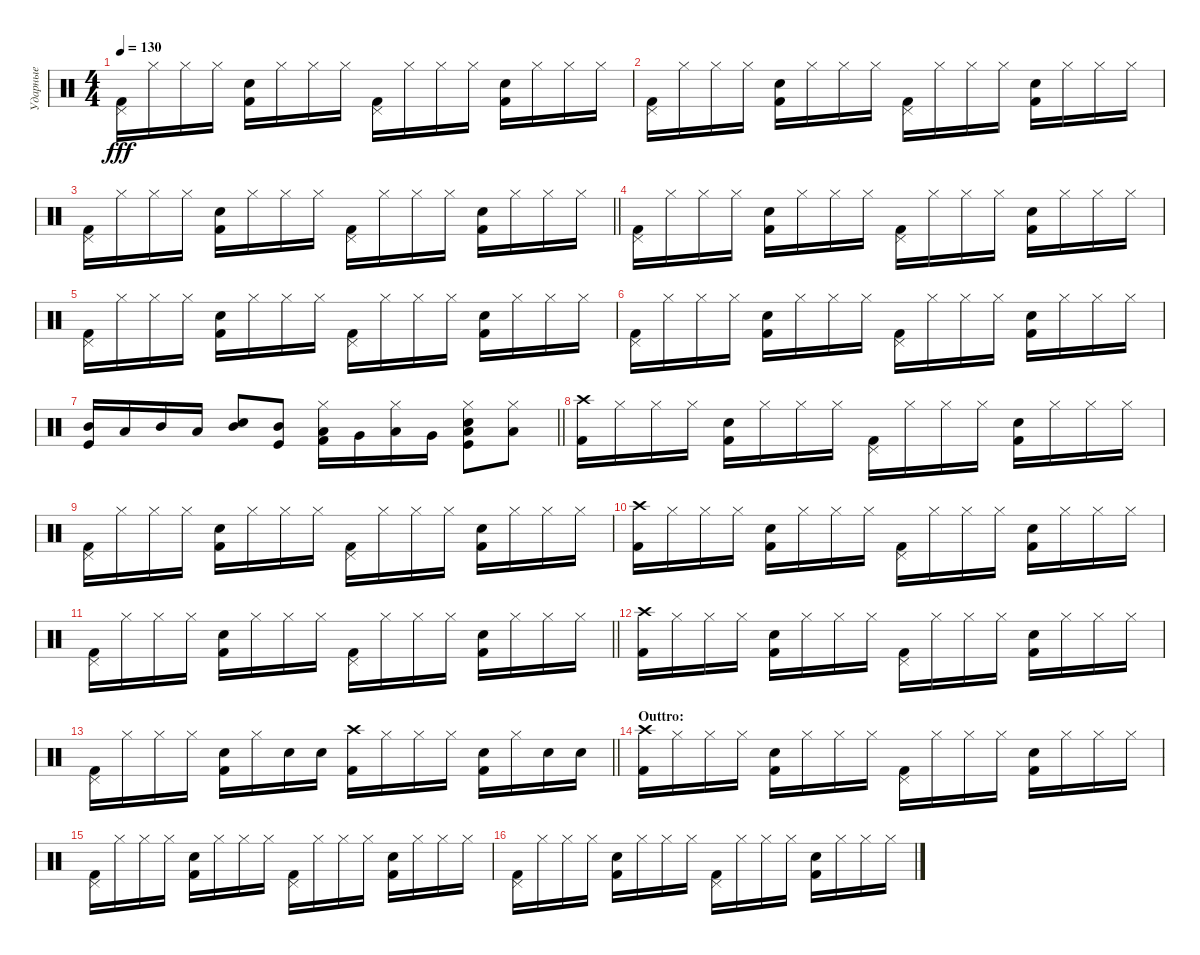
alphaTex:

\track ("Ударные" "Ударные") {instrument percussion}
\staff {score}
\articulation defaults
\ts (4 4)
\tempo 130
\clef neutral
\ks c
("Pedal Hi-Hat (hit)" "Kick (hit) 2").16{dy fff} "Hi-Hat (closed)".16 "Hi-Hat (closed)".16 "Hi-Hat (closed)".16 ("Snare (hit) 2" "Kick (hit) 2").16 "Hi-Hat (closed)".16 "Hi-Hat (closed)".16 "Hi-Hat (closed)".16 ("Pedal Hi-Hat (hit)" "Kick (hit) 2").16 "Hi-Hat (closed)".16 "Hi-Hat (closed)".16 "Hi-Hat (closed)".16 ("Snare (hit) 2" "Kick (hit) 2").16 "Hi-Hat (closed)".16 "Hi-Hat (closed)".16 "Hi-Hat (closed)".16 |
("Pedal Hi-Hat (hit)" "Kick (hit) 2").16 "Hi-Hat (closed)".16 "Hi-Hat (closed)".16 "Hi-Hat (closed)".16 ("Snare (hit) 2" "Kick (hit) 2").16 "Hi-Hat (closed)".16 "Hi-Hat (closed)".16 "Hi-Hat (closed)".16 ("Pedal Hi-Hat (hit)" "Kick (hit) 2").16 "Hi-Hat (closed)".16 "Hi-Hat (closed)".16 "Hi-Hat (closed)".16 ("Snare (hit) 2" "Kick (hit) 2").16 "Hi-Hat (closed)".16 "Hi-Hat (closed)".16 "Hi-Hat (closed)".16 |
\barLineRight lightlight
("Pedal Hi-Hat (hit)" "Kick (hit) 2").16 "Hi-Hat (closed)".16 "Hi-Hat (closed)".16 "Hi-Hat (closed)".16 ("Snare (hit) 2" "Kick (hit) 2").16 "Hi-Hat (closed)".16 "Hi-Hat (closed)".16 "Hi-Hat (closed)".16 ("Pedal Hi-Hat (hit)" "Kick (hit) 2").16 "Hi-Hat (closed)".16 "Hi-Hat (closed)".16 "Hi-Hat (closed)".16 ("Snare (hit) 2" "Kick (hit) 2").16 "Hi-Hat (closed)".16 "Hi-Hat (closed)".16 "Hi-Hat (closed)".16 |
("Pedal Hi-Hat (hit)" "Kick (hit) 2").16 "Hi-Hat (closed)".16 "Hi-Hat (closed)".16 "Hi-Hat (closed)".16 ("Snare (hit) 2" "Kick (hit) 2").16 "Hi-Hat (closed)".16 "Hi-Hat (closed)".16 "Hi-Hat (closed)".16 ("Pedal Hi-Hat (hit)" "Kick (hit) 2").16 "Hi-Hat (closed)".16 "Hi-Hat (closed)".16 "Hi-Hat (closed)".16 ("Snare (hit) 2" "Kick (hit) 2").16 "Hi-Hat (closed)".16 "Hi-Hat (closed)".16 "Hi-Hat (closed)".16 |
("Pedal Hi-Hat (hit)" "Kick (hit) 2").16 "Hi-Hat (closed)".16 "Hi-Hat (closed)".16 "Hi-Hat (closed)".16 ("Snare (hit) 2" "Kick (hit) 2").16 "Hi-Hat (closed)".16 "Hi-Hat (closed)".16 "Hi-Hat (closed)".16 ("Pedal Hi-Hat (hit)" "Kick (hit) 2").16 "Hi-Hat (closed)".16 "Hi-Hat (closed)".16 "Hi-Hat (closed)".16 ("Snare (hit) 2" "Kick (hit) 2").16 "Hi-Hat (closed)".16 "Hi-Hat (closed)".16 "Hi-Hat (closed)".16 |
("Pedal Hi-Hat (hit)" "Kick (hit) 2").16 "Hi-Hat (closed)".16 "Hi-Hat (closed)".16 "Hi-Hat (closed)".16 ("Snare (hit) 2" "Kick (hit) 2").16 "Hi-Hat (closed)".16 "Hi-Hat (closed)".16 "Hi-Hat (closed)".16 ("Pedal Hi-Hat (hit)" "Kick (hit) 2").16 "Hi-Hat (closed)".16 "Hi-Hat (closed)".16 "Hi-Hat (closed)".16 ("Snare (hit) 2" "Kick (hit) 2").16 "Hi-Hat (closed)".16 "Hi-Hat (closed)".16 "Hi-Hat (closed)".16 |
\barLineRight lightlight
("Mid Tom (hit)" "Kick (hit)").16 "Low Tom (hit)".16 "Mid Tom (hit)".16 "Low Tom (hit)".16 ("Snare (hit) 2" "Mid Tom (hit)").8 ("Mid Tom (hit)" "Kick (hit)").8 ("Hi-Hat (closed)" "Kick (hit) 2" "Low Tom (hit)").16 "Very Low Tom (hit)".16 ("Hi-Hat (closed)" "Low Tom (hit)").16 "Very Low Tom (hit)".16 ("Hi-Hat (closed)" "Low Tom (hit)" "Snare (hit) 2" "Kick (hit)").8 ("Hi-Hat (closed)" "Low Tom (hit)").8 |
("Crash high (hit)" "Kick (hit) 2").16 "Hi-Hat (closed)".16 "Hi-Hat (closed)".16 "Hi-Hat (closed)".16 ("Snare (hit) 2" "Kick (hit) 2").16 "Hi-Hat (closed)".16 "Hi-Hat (closed)".16 "Hi-Hat (closed)".16 ("Pedal Hi-Hat (hit)" "Kick (hit) 2").16 "Hi-Hat (closed)".16 "Hi-Hat (closed)".16 "Hi-Hat (closed)".16 ("Snare (hit) 2" "Kick (hit) 2").16 "Hi-Hat (closed)".16 "Hi-Hat (closed)".16 "Hi-Hat (closed)".16 |
("Pedal Hi-Hat (hit)" "Kick (hit) 2").16 "Hi-Hat (closed)".16 "Hi-Hat (closed)".16 "Hi-Hat (closed)".16 ("Snare (hit) 2" "Kick (hit) 2").16 "Hi-Hat (closed)".16 "Hi-Hat (closed)".16 "Hi-Hat (closed)".16 ("Pedal Hi-Hat (hit)" "Kick (hit) 2").16 "Hi-Hat (closed)".16 "Hi-Hat (closed)".16 "Hi-Hat (closed)".16 ("Snare (hit) 2" "Kick (hit) 2").16 "Hi-Hat (closed)".16 "Hi-Hat (closed)".16 "Hi-Hat (closed)".16 |
("Crash high (hit)" "Kick (hit) 2").16 "Hi-Hat (closed)".16 "Hi-Hat (closed)".16 "Hi-Hat (closed)".16 ("Snare (hit) 2" "Kick (hit) 2").16 "Hi-Hat (closed)".16 "Hi-Hat (closed)".16 "Hi-Hat (closed)".16 ("Pedal Hi-Hat (hit)" "Kick (hit) 2").16 "Hi-Hat (closed)".16 "Hi-Hat (closed)".16 "Hi-Hat (closed)".16 ("Snare (hit) 2" "Kick (hit) 2").16 "Hi-Hat (closed)".16 "Hi-Hat (closed)".16 "Hi-Hat (closed)".16 |
\barLineRight lightlight
("Pedal Hi-Hat (hit)" "Kick (hit) 2").16 "Hi-Hat (closed)".16 "Hi-Hat (closed)".16 "Hi-Hat (closed)".16 ("Snare (hit) 2" "Kick (hit) 2").16 "Hi-Hat (closed)".16 "Hi-Hat (closed)".16 "Hi-Hat (closed)".16 ("Pedal Hi-Hat (hit)" "Kick (hit) 2").16 "Hi-Hat (closed)".16 "Hi-Hat (closed)".16 "Hi-Hat (closed)".16 ("Snare (hit) 2" "Kick (hit) 2").16 "Hi-Hat (closed)".16 "Hi-Hat (closed)".16 "Hi-Hat (closed)".16 |
("Crash high (hit)" "Kick (hit) 2").16 "Hi-Hat (closed)".16 "Hi-Hat (closed)".16 "Hi-Hat (closed)".16 ("Snare (hit) 2" "Kick (hit) 2").16 "Hi-Hat (closed)".16 "Hi-Hat (closed)".16 "Hi-Hat (closed)".16 ("Pedal Hi-Hat (hit)" "Kick (hit) 2").16 "Hi-Hat (closed)".16 "Hi-Hat (closed)".16 "Hi-Hat (closed)".16 ("Snare (hit) 2" "Kick (hit) 2").16 "Hi-Hat (closed)".16 "Hi-Hat (closed)".16 "Hi-Hat (closed)".16 |
\barLineRight lightlight
("Pedal Hi-Hat (hit)" "Kick (hit) 2").16 "Hi-Hat (closed)".16 "Hi-Hat (closed)".16 "Hi-Hat (closed)".16 ("Snare (hit) 2" "Kick (hit) 2").16 "Hi-Hat (closed)".16 "Snare (hit) 2".16 "Snare (hit) 2".16 ("Crash high (hit)" "Kick (hit) 2").16 "Hi-Hat (closed)".16 "Hi-Hat (closed)".16 "Hi-Hat (closed)".16 ("Snare (hit) 2" "Kick (hit) 2").16 "Hi-Hat (closed)".16 "Snare (hit) 2".16 "Snare (hit) 2".16 |
\section ("" "Outtro:")
("Crash high (hit)" "Kick (hit) 2").16 "Hi-Hat (closed)".16 "Hi-Hat (closed)".16 "Hi-Hat (closed)".16 ("Snare (hit) 2" "Kick (hit) 2").16 "Hi-Hat (closed)".16 "Hi-Hat (closed)".16 "Hi-Hat (closed)".16 ("Pedal Hi-Hat (hit)" "Kick (hit) 2").16 "Hi-Hat (closed)".16 "Hi-Hat (closed)".16 "Hi-Hat (closed)".16 ("Snare (hit) 2" "Kick (hit) 2").16 "Hi-Hat (closed)".16 "Hi-Hat (closed)".16 "Hi-Hat (closed)".16 |
("Pedal Hi-Hat (hit)" "Kick (hit) 2").16 "Hi-Hat (closed)".16 "Hi-Hat (closed)".16 "Hi-Hat (closed)".16 ("Snare (hit) 2" "Kick (hit) 2").16 "Hi-Hat (closed)".16 "Hi-Hat (closed)".16 "Hi-Hat (closed)".16 ("Pedal Hi-Hat (hit)" "Kick (hit) 2").16 "Hi-Hat (closed)".16 "Hi-Hat (closed)".16 "Hi-Hat (closed)".16 ("Snare (hit) 2" "Kick (hit) 2").16 "Hi-Hat (closed)".16 "Hi-Hat (closed)".16 "Hi-Hat (closed)".16 |
("Pedal Hi-Hat (hit)" "Kick (hit) 2").16 "Hi-Hat (closed)".16 "Hi-Hat (closed)".16 "Hi-Hat (closed)".16 ("Snare (hit) 2" "Kick (hit) 2").16 "Hi-Hat (closed)".16 "Hi-Hat (closed)".16 "Hi-Hat (closed)".16 ("Pedal Hi-Hat (hit)" "Kick (hit) 2").16 "Hi-Hat (closed)".16 "Hi-Hat (closed)".16 "Hi-Hat (closed)".16 ("Snare (hit) 2" "Kick (hit) 2").16 "Hi-Hat (closed)".16 "Hi-Hat (closed)".16 "Hi-Hat (closed)".16
